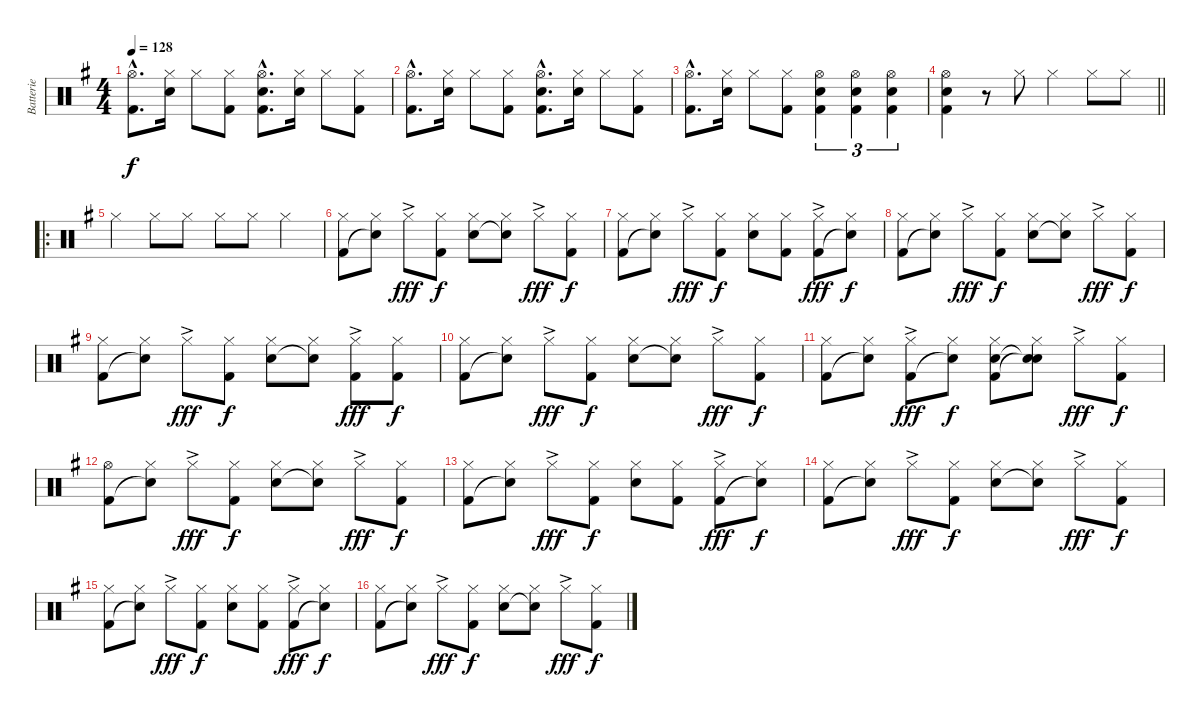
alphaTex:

\track ("Batterie" "Batterie") {instrument percussion}
\staff {score}
\articulation defaults
\ts (4 4)
\tempo 128
\clef neutral
\ks g
("Hi-Hat (open)"{hac} "Kick (hit) 2"{hac}).8{d dy f} ("Hi-Hat (closed)" "Snare (hit) 2").16 "Hi-Hat (closed)".8 ("Hi-Hat (closed)" "Kick (hit) 2").8 ("Hi-Hat (open)"{hac} "Snare (hit) 2"{hac} "Kick (hit) 2"{hac}).8{d} ("Hi-Hat (closed)" "Snare (hit) 2").16 "Hi-Hat (closed)".8 ("Hi-Hat (closed)" "Kick (hit) 2").8 |
("Hi-Hat (open)"{hac} "Kick (hit) 2"{hac}).8{d} ("Hi-Hat (closed)" "Snare (hit) 2").16 "Hi-Hat (closed)".8 ("Hi-Hat (closed)" "Kick (hit) 2").8 ("Hi-Hat (open)"{hac} "Snare (hit) 2"{hac} "Kick (hit) 2"{hac}).8{d} ("Hi-Hat (closed)" "Snare (hit) 2").16 "Hi-Hat (closed)".8 ("Hi-Hat (closed)" "Kick (hit) 2").8 |
("Hi-Hat (open)"{hac} "Kick (hit) 2"{hac}).8{d} ("Hi-Hat (closed)" "Snare (hit) 2").16 "Hi-Hat (closed)".8 ("Hi-Hat (closed)" "Kick (hit) 2").8 ("Hi-Hat (open)" "Snare (hit) 2" "Kick (hit) 2").4{tu (3 2)} ("Hi-Hat (open)" "Snare (hit) 2" "Kick (hit) 2").4{tu (3 2)} ("Hi-Hat (open)" "Snare (hit) 2" "Kick (hit) 2").4{tu (3 2)} |
\barLineRight lightlight
("Hi-Hat (open)" "Snare (hit) 2" "Kick (hit) 2").4 r.8 "Hi-Hat (closed)".8 "Hi-Hat (closed)".4 "Hi-Hat (closed)".8 "Hi-Hat (closed)".8 |
\ro "Hi-Hat (closed)".4 "Hi-Hat (closed)".8 "Hi-Hat (closed)".8 "Hi-Hat (closed)".8 "Hi-Hat (closed)".8 "Hi-Hat (closed)".4
|
("Hi-Hat (closed)" "Kick (hit) 2").8 ("Hi-Hat (closed)" "Snare (hit)"{t}).8 "Hi-Hat (closed)"{ac}.8{dy fff} ("Hi-Hat (closed)" "Kick (hit) 2").8{dy f} ("Hi-Hat (closed)" "Snare (hit) 2").8 ("Hi-Hat (closed)" "Snare (hit)"{t}).8 "Hi-Hat (closed)"{ac}.8{dy fff} ("Hi-Hat (closed)" "Kick (hit) 2").8{dy f} |
("Hi-Hat (closed)" "Kick (hit) 2").8 ("Hi-Hat (closed)" "Snare (hit)"{t}).8 "Hi-Hat (closed)"{ac}.8{dy fff} ("Hi-Hat (closed)" "Kick (hit) 2").8{dy f} ("Hi-Hat (closed)" "Snare (hit) 2").8 ("Hi-Hat (closed)" "Kick (hit) 2").8 ("Hi-Hat (closed)"{ac} "Kick (hit) 2").8{dy fff} ("Hi-Hat (closed)" "Snare (hit)"{t}).8{dy f} |
("Hi-Hat (closed)" "Kick (hit) 2").8 ("Hi-Hat (closed)" "Snare (hit)"{t}).8 "Hi-Hat (closed)"{ac}.8{dy fff} ("Hi-Hat (closed)" "Kick (hit) 2").8{dy f} ("Hi-Hat (closed)" "Snare (hit) 2").8 ("Hi-Hat (closed)" "Snare (hit)"{t}).8 "Hi-Hat (closed)"{ac}.8{dy fff} ("Hi-Hat (closed)" "Kick (hit) 2").8{dy f} |
("Hi-Hat (closed)" "Kick (hit) 2").8 ("Hi-Hat (closed)" "Snare (hit)"{t}).8 "Hi-Hat (closed)"{ac}.8{dy fff} ("Hi-Hat (closed)" "Kick (hit) 2").8{dy f} ("Hi-Hat (closed)" "Snare (hit) 2").8 ("Hi-Hat (closed)" "Snare (hit)"{t}).8 ("Hi-Hat (closed)"{ac} "Kick (hit) 2").8{dy fff} ("Hi-Hat (closed)" "Kick (hit) 2").8{dy f} |
("Hi-Hat (closed)" "Kick (hit) 2").8 ("Hi-Hat (closed)" "Snare (hit)"{t}).8 "Hi-Hat (closed)"{ac}.8{dy fff} ("Hi-Hat (closed)" "Kick (hit) 2").8{dy f} ("Hi-Hat (closed)" "Snare (hit) 2").8 ("Hi-Hat (closed)" "Snare (hit)"{t}).8 "Hi-Hat (closed)"{ac}.8{dy fff} ("Hi-Hat (closed)" "Kick (hit) 2").8{dy f} |
("Hi-Hat (closed)" "Kick (hit) 2").8 ("Hi-Hat (closed)" "Snare (hit)"{t}).8 ("Hi-Hat (closed)"{ac} "Kick (hit) 2").8{dy fff} ("Hi-Hat (closed)" "Snare (hit)"{t}).8{dy f} ("Hi-Hat (closed)" "Snare (hit) 2" "Kick (hit) 2").8 ("Hi-Hat (closed)" "Snare (hit)"{t} "Snare (hit)"{t}).8 "Hi-Hat (closed)"{ac}.8{dy fff} ("Hi-Hat (closed)" "Kick (hit) 2").8{dy f} |
("Hi-Hat (open)" "Kick (hit) 2").8 ("Hi-Hat (closed)" "Snare (hit)"{t}).8 "Hi-Hat (closed)"{ac}.8{dy fff} ("Hi-Hat (closed)" "Kick (hit) 2").8{dy f} ("Hi-Hat (closed)" "Snare (hit) 2").8 ("Hi-Hat (closed)" "Snare (hit)"{t}).8 "Hi-Hat (closed)"{ac}.8{dy fff} ("Hi-Hat (closed)" "Kick (hit) 2").8{dy f} |
("Hi-Hat (closed)" "Kick (hit) 2").8 ("Hi-Hat (closed)" "Snare (hit)"{t}).8 "Hi-Hat (closed)"{ac}.8{dy fff} ("Hi-Hat (closed)" "Kick (hit) 2").8{dy f} ("Hi-Hat (closed)" "Snare (hit) 2").8 ("Hi-Hat (closed)" "Kick (hit) 2").8 ("Hi-Hat (closed)"{ac} "Kick (hit) 2").8{dy fff} ("Hi-Hat (closed)" "Snare (hit)"{t}).8{dy f} |
("Hi-Hat (closed)" "Kick (hit) 2").8 ("Hi-Hat (closed)" "Snare (hit)"{t}).8 "Hi-Hat (closed)"{ac}.8{dy fff} ("Hi-Hat (closed)" "Kick (hit) 2").8{dy f} ("Hi-Hat (closed)" "Snare (hit) 2").8 ("Hi-Hat (closed)" "Snare (hit)"{t}).8 "Hi-Hat (closed)"{ac}.8{dy fff} ("Hi-Hat (closed)" "Kick (hit) 2").8{dy f} |
("Hi-Hat (closed)" "Kick (hit) 2").8 ("Hi-Hat (closed)" "Snare (hit)"{t}).8 "Hi-Hat (closed)"{ac}.8{dy fff} ("Hi-Hat (closed)" "Kick (hit) 2").8{dy f} ("Hi-Hat (closed)" "Snare (hit) 2").8 ("Hi-Hat (closed)" "Kick (hit) 2").8 ("Hi-Hat (closed)"{ac} "Kick (hit) 2").8{dy fff} ("Hi-Hat (closed)" "Snare (hit)"{t}).8{dy f} |
("Hi-Hat (closed)" "Kick (hit) 2").8 ("Hi-Hat (closed)" "Snare (hit)"{t}).8 "Hi-Hat (closed)"{ac}.8{dy fff} ("Hi-Hat (closed)" "Kick (hit) 2").8{dy f} ("Hi-Hat (closed)" "Snare (hit) 2").8 ("Hi-Hat (closed)" "Snare (hit)"{t}).8 "Hi-Hat (closed)"{ac}.8{dy fff} ("Hi-Hat (closed)" "Kick (hit) 2").8{dy f}
